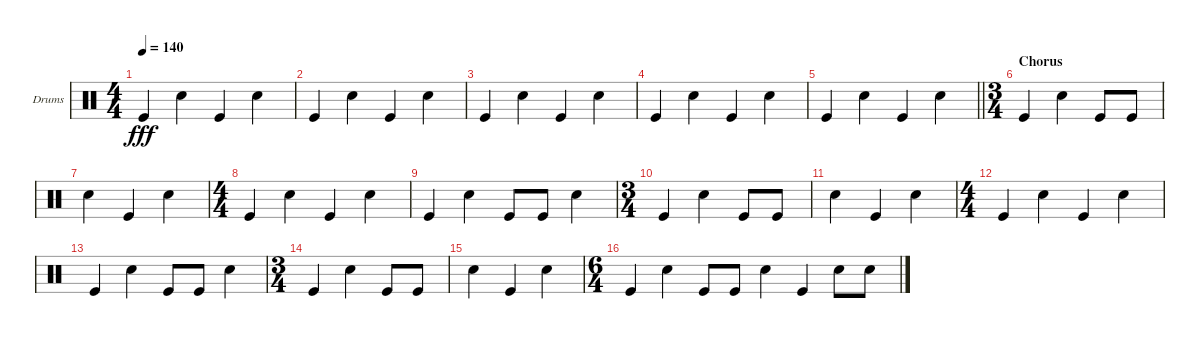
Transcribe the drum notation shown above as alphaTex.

\bracketExtendMode groupsimilarinstruments
\firstSystemTrackNameOrientation horizontal
\otherSystemsTrackNameOrientation horizontal
\track ("Drumkit" "Drums") {instrument percussion}
\staff {score}
\articulation defaults
\ts (4 4)
\tempo 140
\clef neutral
\ks c "Kick (hit)".4{dy fff} "Snare (hit) 2".4 "Kick (hit)".4 "Snare (hit) 2".4
|
"Kick (hit)".4 "Snare (hit) 2".4 "Kick (hit)".4 "Snare (hit) 2".4 |
"Kick (hit)".4 "Snare (hit) 2".4 "Kick (hit)".4 "Snare (hit) 2".4 |
"Kick (hit)".4 "Snare (hit) 2".4 "Kick (hit)".4 "Snare (hit) 2".4 |
\barLineRight lightlight "Kick (hit)".4 "Snare (hit) 2".4 "Kick (hit)".4 "Snare (hit) 2".4
|
\ts (3 4)
\beaming (8 2 2 2)
\section ("" "Chorus")
"Kick (hit)".4 "Snare (hit) 2".4 "Kick (hit)".8 "Kick (hit)".8 |
"Snare (hit) 2".4 "Kick (hit)".4 "Snare (hit) 2".4 |
\ts (4 4)
\beaming (8 2 2 2 2)
"Kick (hit)".4 "Snare (hit) 2".4 "Kick (hit)".4 "Snare (hit) 2".4 |
"Kick (hit)".4 "Snare (hit) 2".4 "Kick (hit)".8 "Kick (hit)".8 "Snare (hit) 2".4 |
\ts (3 4)
\beaming (8 2 2 2 2)
"Kick (hit)".4 "Snare (hit) 2".4 "Kick (hit)".8 "Kick (hit)".8 |
"Snare (hit) 2".4 "Kick (hit)".4 "Snare (hit) 2".4 |
\ts (4 4)
\beaming (8 2 2 2 2)
"Kick (hit)".4 "Snare (hit) 2".4 "Kick (hit)".4 "Snare (hit) 2".4 |
"Kick (hit)".4 "Snare (hit) 2".4 "Kick (hit)".8 "Kick (hit)".8 "Snare (hit) 2".4 |
\ts (3 4)
\beaming (8 2 2 2 2)
"Kick (hit)".4 "Snare (hit) 2".4 "Kick (hit)".8 "Kick (hit)".8 |
\beaming (8 2 2 2)
"Snare (hit) 2".4 "Kick (hit)".4 "Snare (hit) 2".4 |
\ts (6 4)
\beaming (8 6 6)
"Kick (hit)".4 "Snare (hit) 2".4 "Kick (hit)".8 "Kick (hit)".8 "Snare (hit) 2".4 "Kick (hit)".4 "Snare (hit) 2".8 "Snare (hit) 2".8
